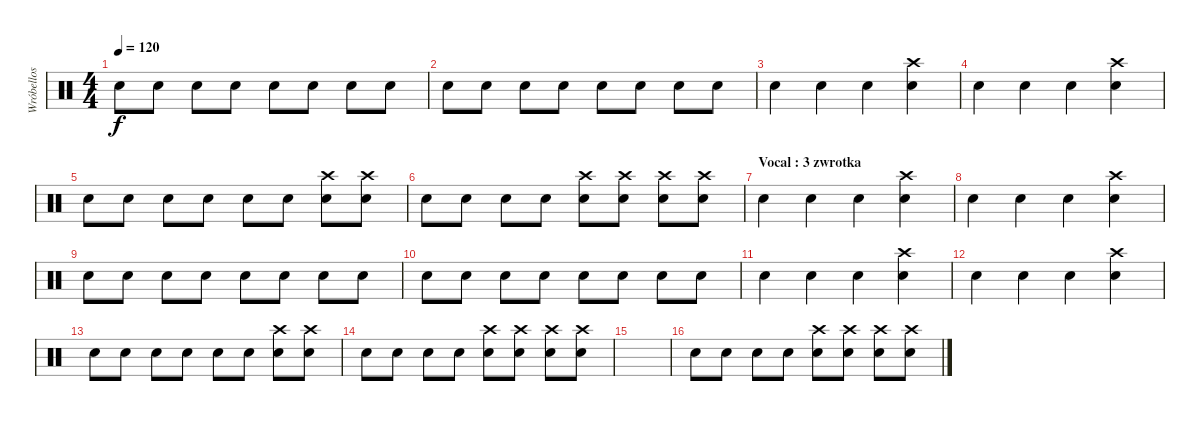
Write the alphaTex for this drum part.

\track ("Wróbellos " "Wróbellos ") {instrument percussion}
\staff {score}
\articulation defaults
\ts (4 4)
\tempo 120
\clef neutral
\ks c "Electric Snare (hit)".8{dy f} "Electric Snare (hit)".8 "Electric Snare (hit)".8 "Electric Snare (hit)".8 "Electric Snare (hit)".8 "Electric Snare (hit)".8 "Electric Snare (hit)".8 "Electric Snare (hit)".8
|
"Electric Snare (hit)".8 "Electric Snare (hit)".8 "Electric Snare (hit)".8 "Electric Snare (hit)".8 "Electric Snare (hit)".8 "Electric Snare (hit)".8 "Electric Snare (hit)".8 "Electric Snare (hit)".8 |
"Electric Snare (hit)".4 "Electric Snare (hit)".4 "Electric Snare (hit)".4 ("Electric Snare (hit)" "Crash high (hit)").4 |
"Electric Snare (hit)".4 "Electric Snare (hit)".4 "Electric Snare (hit)".4 ("Electric Snare (hit)" "Crash high (hit)").4 |
"Electric Snare (hit)".8 "Electric Snare (hit)".8 "Electric Snare (hit)".8 "Electric Snare (hit)".8 "Electric Snare (hit)".8 "Electric Snare (hit)".8 ("Electric Snare (hit)" "Crash high (hit)").8 ("Electric Snare (hit)" "Crash high (hit)").8 |
"Electric Snare (hit)".8 "Electric Snare (hit)".8 "Electric Snare (hit)".8 "Electric Snare (hit)".8 ("Electric Snare (hit)" "Crash high (hit)").8 ("Electric Snare (hit)" "Crash high (hit)").8 ("Electric Snare (hit)" "Crash high (hit)").8 ("Electric Snare (hit)" "Crash high (hit)").8 |
\section ("" "Vocal : 3 zwrotka")
"Electric Snare (hit)".4 "Electric Snare (hit)".4 "Electric Snare (hit)".4 ("Electric Snare (hit)" "Crash high (hit)").4 |
"Electric Snare (hit)".4 "Electric Snare (hit)".4 "Electric Snare (hit)".4 ("Electric Snare (hit)" "Crash high (hit)").4 |
"Electric Snare (hit)".8 "Electric Snare (hit)".8 "Electric Snare (hit)".8 "Electric Snare (hit)".8 "Electric Snare (hit)".8 "Electric Snare (hit)".8 "Electric Snare (hit)".8 "Electric Snare (hit)".8 |
"Electric Snare (hit)".8 "Electric Snare (hit)".8 "Electric Snare (hit)".8 "Electric Snare (hit)".8 "Electric Snare (hit)".8 "Electric Snare (hit)".8 "Electric Snare (hit)".8 "Electric Snare (hit)".8 |
"Electric Snare (hit)".4 "Electric Snare (hit)".4 "Electric Snare (hit)".4 ("Electric Snare (hit)" "Crash high (hit)").4 |
"Electric Snare (hit)".4 "Electric Snare (hit)".4 "Electric Snare (hit)".4 ("Electric Snare (hit)" "Crash high (hit)").4 |
"Electric Snare (hit)".8 "Electric Snare (hit)".8 "Electric Snare (hit)".8 "Electric Snare (hit)".8 "Electric Snare (hit)".8 "Electric Snare (hit)".8 ("Electric Snare (hit)" "Crash high (hit)").8 ("Electric Snare (hit)" "Crash high (hit)").8 |
"Electric Snare (hit)".8 "Electric Snare (hit)".8 "Electric Snare (hit)".8 "Electric Snare (hit)".8 ("Electric Snare (hit)" "Crash high (hit)").8 ("Electric Snare (hit)" "Crash high (hit)").8 ("Electric Snare (hit)" "Crash high (hit)").8 ("Electric Snare (hit)" "Crash high (hit)").8 |
|
"Electric Snare (hit)".8 "Electric Snare (hit)".8 "Electric Snare (hit)".8 "Electric Snare (hit)".8 ("Electric Snare (hit)" "Crash high (hit)").8 ("Electric Snare (hit)" "Crash high (hit)").8 ("Electric Snare (hit)" "Crash high (hit)").8 ("Electric Snare (hit)" "Crash high (hit)").8
